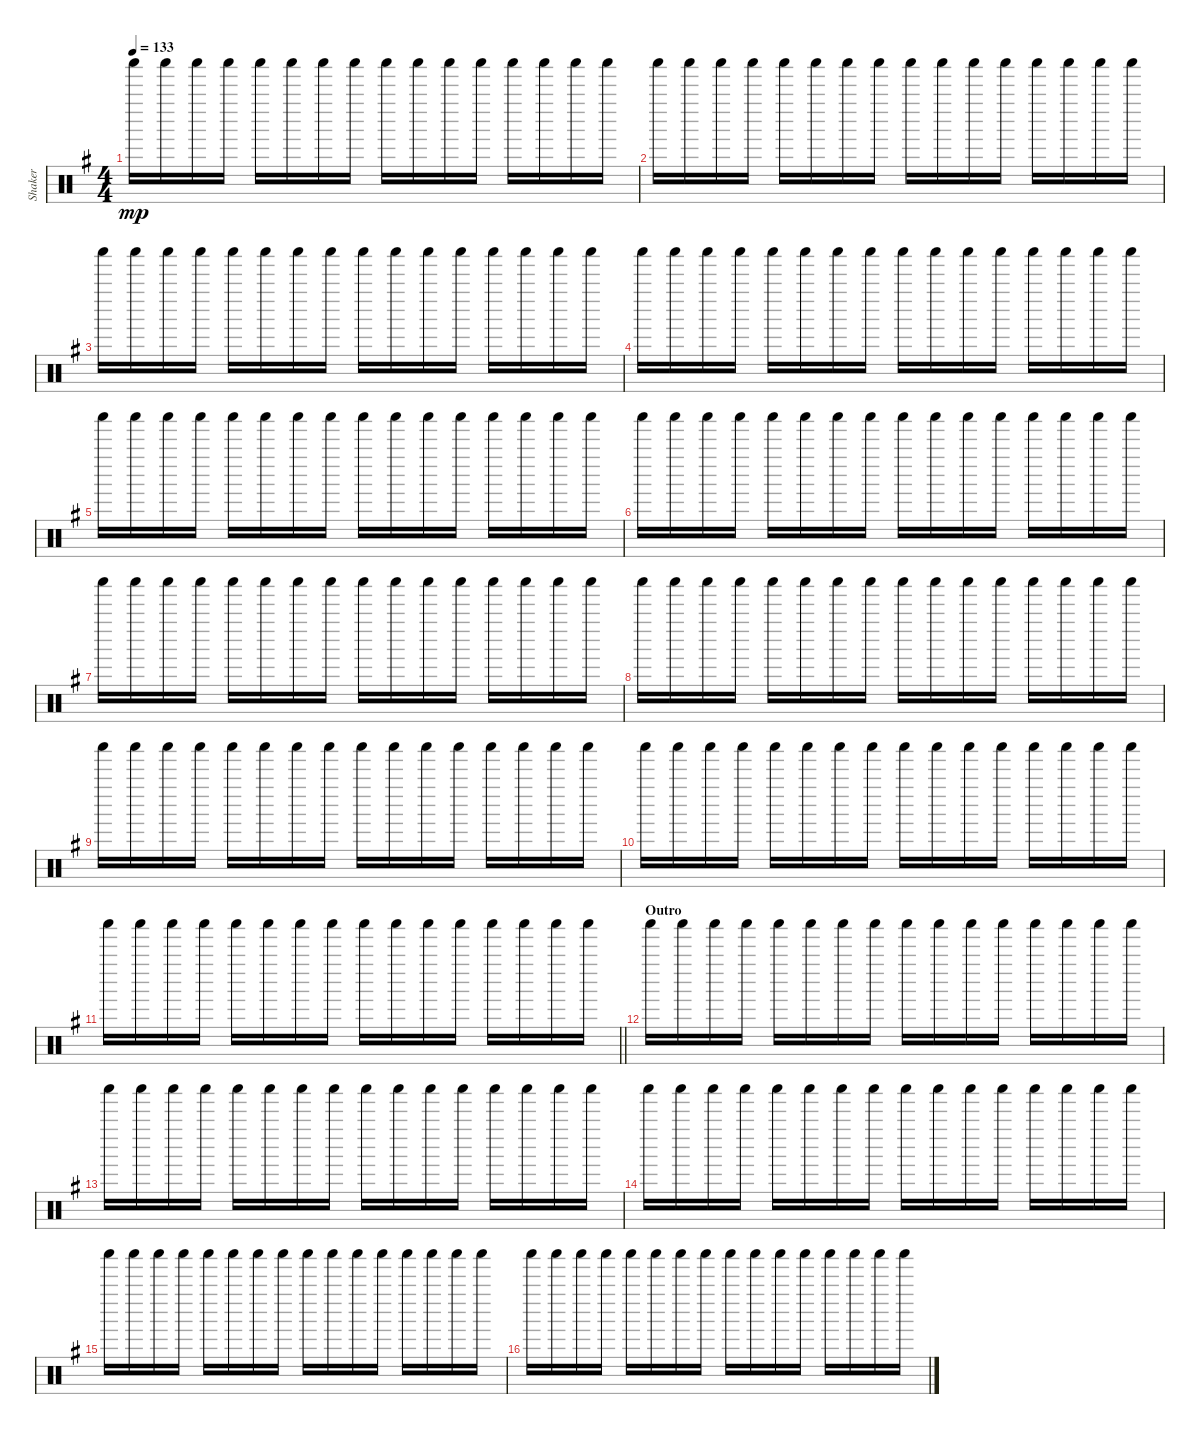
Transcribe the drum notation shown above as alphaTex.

\track ("Shaker" "Shaker") {instrument percussion}
\staff {score}
\articulation defaults
\ts (4 4)
\tempo 133
\clef neutral
\ks g "Shaker (hit)".16{dy mp} "Shaker (hit)".16 "Shaker (hit)".16 "Shaker (hit)".16 "Shaker (hit)".16 "Shaker (hit)".16 "Shaker (hit)".16 "Shaker (hit)".16 "Shaker (hit)".16 "Shaker (hit)".16 "Shaker (hit)".16 "Shaker (hit)".16 "Shaker (hit)".16 "Shaker (hit)".16 "Shaker (hit)".16 "Shaker (hit)".16
|
"Shaker (hit)".16 "Shaker (hit)".16 "Shaker (hit)".16 "Shaker (hit)".16 "Shaker (hit)".16 "Shaker (hit)".16 "Shaker (hit)".16 "Shaker (hit)".16 "Shaker (hit)".16 "Shaker (hit)".16 "Shaker (hit)".16 "Shaker (hit)".16 "Shaker (hit)".16 "Shaker (hit)".16 "Shaker (hit)".16 "Shaker (hit)".16 |
"Shaker (hit)".16 "Shaker (hit)".16 "Shaker (hit)".16 "Shaker (hit)".16 "Shaker (hit)".16 "Shaker (hit)".16 "Shaker (hit)".16 "Shaker (hit)".16 "Shaker (hit)".16 "Shaker (hit)".16 "Shaker (hit)".16 "Shaker (hit)".16 "Shaker (hit)".16 "Shaker (hit)".16 "Shaker (hit)".16 "Shaker (hit)".16 |
"Shaker (hit)".16 "Shaker (hit)".16 "Shaker (hit)".16 "Shaker (hit)".16 "Shaker (hit)".16 "Shaker (hit)".16 "Shaker (hit)".16 "Shaker (hit)".16 "Shaker (hit)".16 "Shaker (hit)".16 "Shaker (hit)".16 "Shaker (hit)".16 "Shaker (hit)".16 "Shaker (hit)".16 "Shaker (hit)".16 "Shaker (hit)".16 |
"Shaker (hit)".16 "Shaker (hit)".16 "Shaker (hit)".16 "Shaker (hit)".16 "Shaker (hit)".16 "Shaker (hit)".16 "Shaker (hit)".16 "Shaker (hit)".16 "Shaker (hit)".16 "Shaker (hit)".16 "Shaker (hit)".16 "Shaker (hit)".16 "Shaker (hit)".16 "Shaker (hit)".16 "Shaker (hit)".16 "Shaker (hit)".16 |
"Shaker (hit)".16 "Shaker (hit)".16 "Shaker (hit)".16 "Shaker (hit)".16 "Shaker (hit)".16 "Shaker (hit)".16 "Shaker (hit)".16 "Shaker (hit)".16 "Shaker (hit)".16 "Shaker (hit)".16 "Shaker (hit)".16 "Shaker (hit)".16 "Shaker (hit)".16 "Shaker (hit)".16 "Shaker (hit)".16 "Shaker (hit)".16 |
"Shaker (hit)".16 "Shaker (hit)".16 "Shaker (hit)".16 "Shaker (hit)".16 "Shaker (hit)".16 "Shaker (hit)".16 "Shaker (hit)".16 "Shaker (hit)".16 "Shaker (hit)".16 "Shaker (hit)".16 "Shaker (hit)".16 "Shaker (hit)".16 "Shaker (hit)".16 "Shaker (hit)".16 "Shaker (hit)".16 "Shaker (hit)".16 |
"Shaker (hit)".16 "Shaker (hit)".16 "Shaker (hit)".16 "Shaker (hit)".16 "Shaker (hit)".16 "Shaker (hit)".16 "Shaker (hit)".16 "Shaker (hit)".16 "Shaker (hit)".16 "Shaker (hit)".16 "Shaker (hit)".16 "Shaker (hit)".16 "Shaker (hit)".16 "Shaker (hit)".16 "Shaker (hit)".16 "Shaker (hit)".16 |
"Shaker (hit)".16 "Shaker (hit)".16 "Shaker (hit)".16 "Shaker (hit)".16 "Shaker (hit)".16 "Shaker (hit)".16 "Shaker (hit)".16 "Shaker (hit)".16 "Shaker (hit)".16 "Shaker (hit)".16 "Shaker (hit)".16 "Shaker (hit)".16 "Shaker (hit)".16 "Shaker (hit)".16 "Shaker (hit)".16 "Shaker (hit)".16 |
"Shaker (hit)".16 "Shaker (hit)".16 "Shaker (hit)".16 "Shaker (hit)".16 "Shaker (hit)".16 "Shaker (hit)".16 "Shaker (hit)".16 "Shaker (hit)".16 "Shaker (hit)".16 "Shaker (hit)".16 "Shaker (hit)".16 "Shaker (hit)".16 "Shaker (hit)".16 "Shaker (hit)".16 "Shaker (hit)".16 "Shaker (hit)".16 |
\barLineRight lightlight "Shaker (hit)".16 "Shaker (hit)".16 "Shaker (hit)".16 "Shaker (hit)".16 "Shaker (hit)".16 "Shaker (hit)".16 "Shaker (hit)".16 "Shaker (hit)".16 "Shaker (hit)".16 "Shaker (hit)".16 "Shaker (hit)".16 "Shaker (hit)".16 "Shaker (hit)".16 "Shaker (hit)".16 "Shaker (hit)".16 "Shaker (hit)".16
|
\section ("" "Outro")
"Shaker (hit)".16 "Shaker (hit)".16 "Shaker (hit)".16 "Shaker (hit)".16 "Shaker (hit)".16 "Shaker (hit)".16 "Shaker (hit)".16 "Shaker (hit)".16 "Shaker (hit)".16 "Shaker (hit)".16 "Shaker (hit)".16 "Shaker (hit)".16 "Shaker (hit)".16 "Shaker (hit)".16 "Shaker (hit)".16 "Shaker (hit)".16 |
"Shaker (hit)".16 "Shaker (hit)".16 "Shaker (hit)".16 "Shaker (hit)".16 "Shaker (hit)".16 "Shaker (hit)".16 "Shaker (hit)".16 "Shaker (hit)".16 "Shaker (hit)".16 "Shaker (hit)".16 "Shaker (hit)".16 "Shaker (hit)".16 "Shaker (hit)".16 "Shaker (hit)".16 "Shaker (hit)".16 "Shaker (hit)".16 |
"Shaker (hit)".16 "Shaker (hit)".16 "Shaker (hit)".16 "Shaker (hit)".16 "Shaker (hit)".16 "Shaker (hit)".16 "Shaker (hit)".16 "Shaker (hit)".16 "Shaker (hit)".16 "Shaker (hit)".16 "Shaker (hit)".16 "Shaker (hit)".16 "Shaker (hit)".16 "Shaker (hit)".16 "Shaker (hit)".16 "Shaker (hit)".16 |
"Shaker (hit)".16 "Shaker (hit)".16 "Shaker (hit)".16 "Shaker (hit)".16 "Shaker (hit)".16 "Shaker (hit)".16 "Shaker (hit)".16 "Shaker (hit)".16 "Shaker (hit)".16 "Shaker (hit)".16 "Shaker (hit)".16 "Shaker (hit)".16 "Shaker (hit)".16 "Shaker (hit)".16 "Shaker (hit)".16 "Shaker (hit)".16 |
"Shaker (hit)".16 "Shaker (hit)".16 "Shaker (hit)".16 "Shaker (hit)".16 "Shaker (hit)".16 "Shaker (hit)".16 "Shaker (hit)".16 "Shaker (hit)".16 "Shaker (hit)".16 "Shaker (hit)".16 "Shaker (hit)".16 "Shaker (hit)".16 "Shaker (hit)".16 "Shaker (hit)".16 "Shaker (hit)".16 "Shaker (hit)".16
